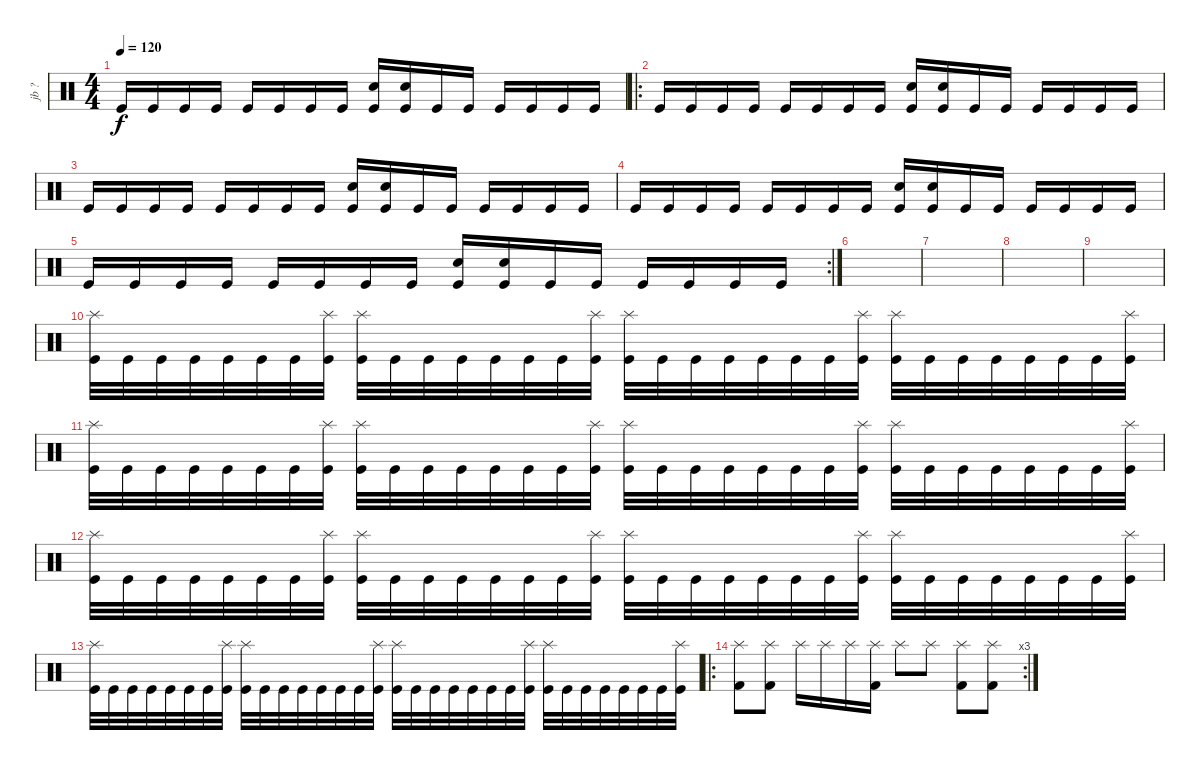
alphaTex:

\track ("jb ?" "jb ?") {instrument percussion}
\staff {score}
\articulation defaults
\ts (4 4)
\tempo 120
\clef neutral
\ks c "Kick (hit)".16{dy f} "Kick (hit)".16 "Kick (hit)".16 "Kick (hit)".16 "Kick (hit)".16 "Kick (hit)".16 "Kick (hit)".16 "Kick (hit)".16
("Electric Snare (hit)" "Kick (hit)").16 ("Snare (hit) 2" "Kick (hit)").16 "Kick (hit)".16 "Kick (hit)".16 "Kick (hit)".16 "Kick (hit)".16 "Kick (hit)".16 "Kick (hit)".16 |
\ro "Kick (hit)".16 "Kick (hit)".16 "Kick (hit)".16 "Kick (hit)".16 "Kick (hit)".16 "Kick (hit)".16 "Kick (hit)".16 "Kick (hit)".16
("Electric Snare (hit)" "Kick (hit)").16 ("Snare (hit) 2" "Kick (hit)").16 "Kick (hit)".16 "Kick (hit)".16 "Kick (hit)".16 "Kick (hit)".16 "Kick (hit)".16 "Kick (hit)".16 |
"Kick (hit)".16 "Kick (hit)".16 "Kick (hit)".16 "Kick (hit)".16 "Kick (hit)".16 "Kick (hit)".16 "Kick (hit)".16 "Kick (hit)".16 ("Electric Snare (hit)" "Kick (hit)").16 ("Snare (hit) 2" "Kick (hit)").16 "Kick (hit)".16 "Kick (hit)".16 "Kick (hit)".16 "Kick (hit)".16 "Kick (hit)".16 "Kick (hit)".16 |
"Kick (hit)".16 "Kick (hit)".16 "Kick (hit)".16 "Kick (hit)".16 "Kick (hit)".16 "Kick (hit)".16 "Kick (hit)".16 "Kick (hit)".16 ("Electric Snare (hit)" "Kick (hit)").16 ("Snare (hit) 2" "Kick (hit)").16 "Kick (hit)".16 "Kick (hit)".16 "Kick (hit)".16 "Kick (hit)".16 "Kick (hit)".16 "Kick (hit)".16 |
\rc 2 "Kick (hit)".16 "Kick (hit)".16 "Kick (hit)".16 "Kick (hit)".16 "Kick (hit)".16 "Kick (hit)".16 "Kick (hit)".16 "Kick (hit)".16
("Electric Snare (hit)" "Kick (hit)").16 ("Snare (hit) 2" "Kick (hit)").16 "Kick (hit)".16 "Kick (hit)".16 "Kick (hit)".16 "Kick (hit)".16 "Kick (hit)".16 "Kick (hit)".16 |
|
|
|
|
("Splash (hit)" "Kick (hit)").32 "Kick (hit)".32 "Kick (hit)".32 "Kick (hit)".32 "Kick (hit)".32 "Kick (hit)".32 "Kick (hit)".32 ("Splash (hit)" "Kick (hit)").32 ("Splash (hit)" "Kick (hit)").32 "Kick (hit)".32 "Kick (hit)".32 "Kick (hit)".32 "Kick (hit)".32 "Kick (hit)".32 "Kick (hit)".32 ("Splash (hit)" "Kick (hit)").32 ("Splash (hit)" "Kick (hit)").32 "Kick (hit)".32 "Kick (hit)".32 "Kick (hit)".32 "Kick (hit)".32 "Kick (hit)".32 "Kick (hit)".32 ("Splash (hit)" "Kick (hit)").32 ("Splash (hit)" "Kick (hit)").32 "Kick (hit)".32 "Kick (hit)".32 "Kick (hit)".32 "Kick (hit)".32 "Kick (hit)".32 "Kick (hit)".32 ("Splash (hit)" "Kick (hit)").32 |
("Splash (hit)" "Kick (hit)").32 "Kick (hit)".32 "Kick (hit)".32 "Kick (hit)".32 "Kick (hit)".32 "Kick (hit)".32 "Kick (hit)".32 ("Splash (hit)" "Kick (hit)").32 ("Splash (hit)" "Kick (hit)").32 "Kick (hit)".32 "Kick (hit)".32 "Kick (hit)".32 "Kick (hit)".32 "Kick (hit)".32 "Kick (hit)".32 ("Splash (hit)" "Kick (hit)").32 ("Splash (hit)" "Kick (hit)").32 "Kick (hit)".32 "Kick (hit)".32 "Kick (hit)".32 "Kick (hit)".32 "Kick (hit)".32 "Kick (hit)".32 ("Splash (hit)" "Kick (hit)").32 ("Splash (hit)" "Kick (hit)").32 "Kick (hit)".32 "Kick (hit)".32 "Kick (hit)".32 "Kick (hit)".32 "Kick (hit)".32 "Kick (hit)".32 ("Splash (hit)" "Kick (hit)").32 |
("Splash (hit)" "Kick (hit)").32 "Kick (hit)".32 "Kick (hit)".32 "Kick (hit)".32 "Kick (hit)".32 "Kick (hit)".32 "Kick (hit)".32 ("Splash (hit)" "Kick (hit)").32 ("Splash (hit)" "Kick (hit)").32 "Kick (hit)".32 "Kick (hit)".32 "Kick (hit)".32 "Kick (hit)".32 "Kick (hit)".32 "Kick (hit)".32 ("Splash (hit)" "Kick (hit)").32 ("Splash (hit)" "Kick (hit)").32 "Kick (hit)".32 "Kick (hit)".32 "Kick (hit)".32 "Kick (hit)".32 "Kick (hit)".32 "Kick (hit)".32 ("Splash (hit)" "Kick (hit)").32 ("Splash (hit)" "Kick (hit)").32 "Kick (hit)".32 "Kick (hit)".32 "Kick (hit)".32 "Kick (hit)".32 "Kick (hit)".32 "Kick (hit)".32 ("Splash (hit)" "Kick (hit)").32 |
("Splash (hit)" "Kick (hit)").32 "Kick (hit)".32 "Kick (hit)".32 "Kick (hit)".32 "Kick (hit)".32 "Kick (hit)".32 "Kick (hit)".32 ("Splash (hit)" "Kick (hit)").32 ("Splash (hit)" "Kick (hit)").32 "Kick (hit)".32 "Kick (hit)".32 "Kick (hit)".32 "Kick (hit)".32 "Kick (hit)".32 "Kick (hit)".32 ("Splash (hit)" "Kick (hit)").32 ("Splash (hit)" "Kick (hit)").32 "Kick (hit)".32 "Kick (hit)".32 "Kick (hit)".32 "Kick (hit)".32 "Kick (hit)".32 "Kick (hit)".32 ("Splash (hit)" "Kick (hit)").32 ("Splash (hit)" "Kick (hit)").32 "Kick (hit)".32 "Kick (hit)".32 "Kick (hit)".32 "Kick (hit)".32 "Kick (hit)".32 "Kick (hit)".32 ("Splash (hit)" "Kick (hit)").32 |
\ro
\rc 3
("Splash (hit)" "Kick (hit) 2").8 ("Splash (hit)" "Kick (hit) 2").8 "Splash (hit)".16 "Splash (hit)".16 "Splash (hit)".16 ("Splash (hit)" "Kick (hit) 2").16 "Splash (hit)".8 "Splash (hit)".8 ("Splash (hit)" "Kick (hit) 2").8 ("Splash (hit)" "Kick (hit) 2").8
